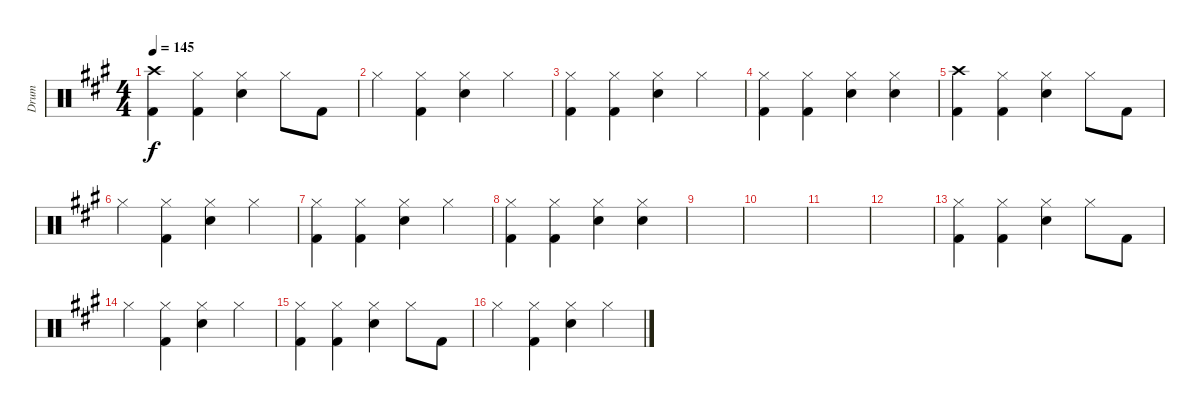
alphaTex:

\track ("Drum" "Drum") {instrument percussion}
\staff {score}
\articulation defaults
\ts (4 4)
\tempo 145
\clef neutral
\ks a
("Kick (hit) 2" "Crash high (hit)").4{dy f} ("Hi-Hat (closed)" "Kick (hit) 2").4 ("Hi-Hat (closed)" "Electric Snare (hit)").4 "Hi-Hat (closed)".8 "Kick (hit) 2".8 |
"Hi-Hat (closed)".4 ("Hi-Hat (closed)" "Kick (hit) 2").4 ("Hi-Hat (closed)" "Electric Snare (hit)").4 "Hi-Hat (closed)".4 |
("Hi-Hat (closed)" "Kick (hit) 2").4 ("Hi-Hat (closed)" "Kick (hit) 2").4 ("Hi-Hat (closed)" "Electric Snare (hit)").4 "Hi-Hat (closed)".4 |
("Hi-Hat (closed)" "Kick (hit) 2").4 ("Hi-Hat (closed)" "Kick (hit) 2").4 ("Hi-Hat (closed)" "Electric Snare (hit)").4 ("Hi-Hat (closed)" "Electric Snare (hit)").4 |
("Kick (hit) 2" "Crash high (hit)").4 ("Hi-Hat (closed)" "Kick (hit) 2").4 ("Hi-Hat (closed)" "Electric Snare (hit)").4 "Hi-Hat (closed)".8 "Kick (hit) 2".8 |
"Hi-Hat (closed)".4 ("Hi-Hat (closed)" "Kick (hit) 2").4 ("Hi-Hat (closed)" "Electric Snare (hit)").4 "Hi-Hat (closed)".4 |
("Hi-Hat (closed)" "Kick (hit) 2").4 ("Hi-Hat (closed)" "Kick (hit) 2").4 ("Hi-Hat (closed)" "Electric Snare (hit)").4 "Hi-Hat (closed)".4 |
("Hi-Hat (closed)" "Kick (hit) 2").4 ("Hi-Hat (closed)" "Kick (hit) 2").4 ("Hi-Hat (closed)" "Electric Snare (hit)").4 ("Hi-Hat (closed)" "Electric Snare (hit)").4 |
|
|
|
|
("Hi-Hat (closed)" "Kick (hit) 2").4 ("Hi-Hat (closed)" "Kick (hit) 2").4 ("Hi-Hat (closed)" "Electric Snare (hit)").4 "Hi-Hat (closed)".8 "Kick (hit) 2".8 |
"Hi-Hat (closed)".4 ("Hi-Hat (closed)" "Kick (hit) 2").4 ("Hi-Hat (closed)" "Electric Snare (hit)").4 "Hi-Hat (closed)".4 |
("Hi-Hat (closed)" "Kick (hit) 2").4 ("Hi-Hat (closed)" "Kick (hit) 2").4 ("Hi-Hat (closed)" "Electric Snare (hit)").4 "Hi-Hat (closed)".8 "Kick (hit) 2".8 |
"Hi-Hat (closed)".4 ("Hi-Hat (closed)" "Kick (hit) 2").4 ("Hi-Hat (closed)" "Electric Snare (hit)").4 "Hi-Hat (closed)".4
